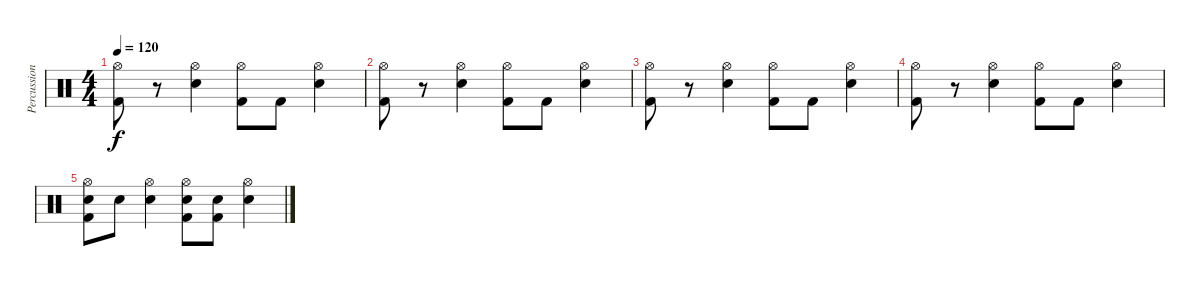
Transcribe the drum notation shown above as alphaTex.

\track ("Percussion" "Percussion") {instrument percussion}
\staff {score}
\articulation defaults
\ts (4 4)
\tempo 120
\clef neutral
\ks c
("Hi-Hat (open)" "Kick (hit) 2").8{dy f} r.8 ("Hi-Hat (open)" "Snare (hit) 2").4 ("Hi-Hat (open)" "Kick (hit) 2").8 "Kick (hit) 2".8 ("Hi-Hat (open)" "Snare (hit) 2").4 |
("Hi-Hat (open)" "Kick (hit) 2").8 r.8 ("Hi-Hat (open)" "Snare (hit) 2").4 ("Hi-Hat (open)" "Kick (hit) 2").8 "Kick (hit) 2".8 ("Hi-Hat (open)" "Snare (hit) 2").4 |
("Hi-Hat (open)" "Kick (hit) 2").8 r.8 ("Hi-Hat (open)" "Snare (hit) 2").4 ("Hi-Hat (open)" "Kick (hit) 2").8 "Kick (hit) 2".8 ("Hi-Hat (open)" "Snare (hit) 2").4 |
("Hi-Hat (open)" "Kick (hit) 2").8 r.8 ("Hi-Hat (open)" "Snare (hit) 2").4 ("Hi-Hat (open)" "Kick (hit) 2").8 "Kick (hit) 2".8 ("Hi-Hat (open)" "Snare (hit) 2").4 |
("Hi-Hat (open)" "Snare (hit) 2" "Kick (hit) 2").8 "Snare (hit) 2".8 ("Hi-Hat (open)" "Snare (hit) 2").4 ("Hi-Hat (open)" "Snare (hit) 2" "Kick (hit) 2").8 ("Snare (hit) 2" "Kick (hit) 2").8 ("Hi-Hat (open)" "Snare (hit) 2").4
